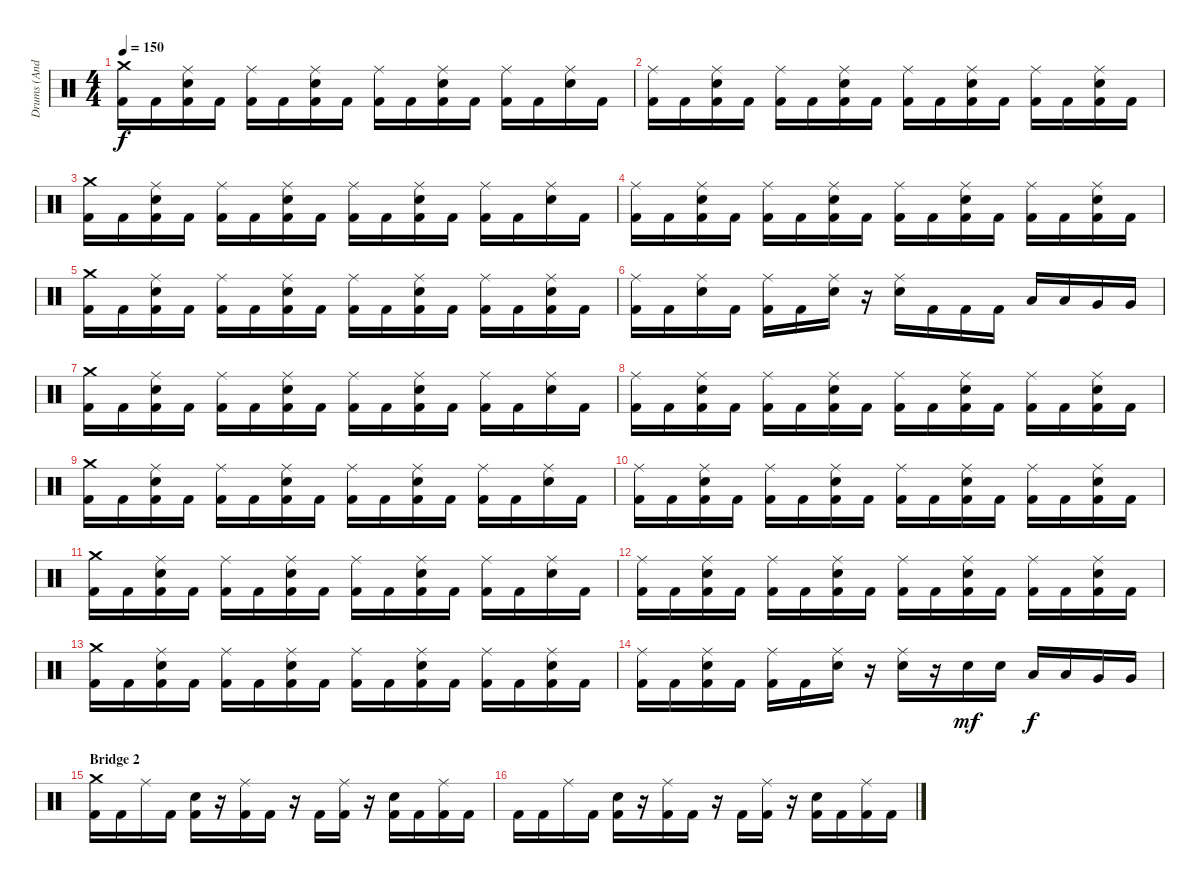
\track ("Drums (Andy C)" "Drums (And") {instrument percussion}
\staff {score}
\articulation defaults
\ts (4 4)
\tempo 150
\clef neutral
\ks c
("Crash medium (hit)" "Kick (hit) 2").16{dy f} "Kick (hit) 2".16 ("Ride (middle)" "Kick (hit) 2" "Electric Snare (hit)").16 "Kick (hit) 2".16 ("Ride (middle)" "Kick (hit) 2").16 "Kick (hit) 2".16 ("Ride (middle)" "Kick (hit) 2" "Electric Snare (hit)").16 "Kick (hit) 2".16 ("Ride (middle)" "Kick (hit) 2").16 "Kick (hit) 2".16 ("Ride (middle)" "Kick (hit) 2" "Electric Snare (hit)").16 "Kick (hit) 2".16 ("Ride (middle)" "Kick (hit) 2").16 "Kick (hit) 2".16 ("Ride (middle)" "Electric Snare (hit)").16 "Kick (hit) 2".16 |
("Ride (middle)" "Kick (hit) 2").16 "Kick (hit) 2".16 ("Ride (middle)" "Kick (hit) 2" "Electric Snare (hit)").16 "Kick (hit) 2".16 ("Ride (middle)" "Kick (hit) 2").16 "Kick (hit) 2".16 ("Ride (middle)" "Kick (hit) 2" "Electric Snare (hit)").16 "Kick (hit) 2".16 ("Ride (middle)" "Kick (hit) 2").16 "Kick (hit) 2".16 ("Ride (middle)" "Kick (hit) 2" "Electric Snare (hit)").16 "Kick (hit) 2".16 ("Ride (middle)" "Kick (hit) 2").16 "Kick (hit) 2".16 ("Ride (middle)" "Kick (hit) 2" "Electric Snare (hit)").16 "Kick (hit) 2".16 |
("Crash medium (hit)" "Kick (hit) 2").16 "Kick (hit) 2".16 ("Ride (middle)" "Kick (hit) 2" "Electric Snare (hit)").16 "Kick (hit) 2".16 ("Ride (middle)" "Kick (hit) 2").16 "Kick (hit) 2".16 ("Ride (middle)" "Kick (hit) 2" "Electric Snare (hit)").16 "Kick (hit) 2".16 ("Ride (middle)" "Kick (hit) 2").16 "Kick (hit) 2".16 ("Ride (middle)" "Kick (hit) 2" "Electric Snare (hit)").16 "Kick (hit) 2".16 ("Ride (middle)" "Kick (hit) 2").16 "Kick (hit) 2".16 ("Ride (middle)" "Electric Snare (hit)").16 "Kick (hit) 2".16 |
("Ride (middle)" "Kick (hit) 2").16 "Kick (hit) 2".16 ("Ride (middle)" "Kick (hit) 2" "Electric Snare (hit)").16 "Kick (hit) 2".16 ("Ride (middle)" "Kick (hit) 2").16 "Kick (hit) 2".16 ("Ride (middle)" "Kick (hit) 2" "Electric Snare (hit)").16 "Kick (hit) 2".16 ("Ride (middle)" "Kick (hit) 2").16 "Kick (hit) 2".16 ("Ride (middle)" "Kick (hit) 2" "Electric Snare (hit)").16 "Kick (hit) 2".16 ("Ride (middle)" "Kick (hit) 2").16 "Kick (hit) 2".16 ("Ride (middle)" "Kick (hit) 2" "Electric Snare (hit)").16 "Kick (hit) 2".16 |
("Crash medium (hit)" "Kick (hit) 2").16 "Kick (hit) 2".16 ("Ride (middle)" "Kick (hit) 2" "Electric Snare (hit)").16 "Kick (hit) 2".16 ("Ride (middle)" "Kick (hit) 2").16 "Kick (hit) 2".16 ("Ride (middle)" "Kick (hit) 2" "Electric Snare (hit)").16 "Kick (hit) 2".16 ("Ride (middle)" "Kick (hit) 2").16 "Kick (hit) 2".16 ("Ride (middle)" "Kick (hit) 2" "Electric Snare (hit)").16 "Kick (hit) 2".16 ("Ride (middle)" "Kick (hit) 2").16 "Kick (hit) 2".16 ("Ride (middle)" "Kick (hit) 2" "Electric Snare (hit)").16 "Kick (hit) 2".16 |
("Ride (middle)" "Kick (hit) 2").16 "Kick (hit) 2".16 ("Ride (middle)" "Electric Snare (hit)").16 "Kick (hit) 2".16 ("Ride (middle)" "Kick (hit) 2").16 "Kick (hit) 2".16 ("Ride (middle)" "Electric Snare (hit)").16 r.16 ("Ride (middle)" "Electric Snare (hit)").16 "Kick (hit) 2".16 "Kick (hit) 2".16 "Kick (hit) 2".16 "Low Tom (hit)".16 "Low Tom (hit)".16 "Very Low Tom (hit)".16 "Very Low Tom (hit)".16 |
("Crash medium (hit)" "Kick (hit) 2").16 "Kick (hit) 2".16 ("Ride (middle)" "Kick (hit) 2" "Electric Snare (hit)").16 "Kick (hit) 2".16 ("Ride (middle)" "Kick (hit) 2").16 "Kick (hit) 2".16 ("Ride (middle)" "Kick (hit) 2" "Electric Snare (hit)").16 "Kick (hit) 2".16 ("Ride (middle)" "Kick (hit) 2").16 "Kick (hit) 2".16 ("Ride (middle)" "Kick (hit) 2" "Electric Snare (hit)").16 "Kick (hit) 2".16 ("Ride (middle)" "Kick (hit) 2").16 "Kick (hit) 2".16 ("Ride (middle)" "Electric Snare (hit)").16 "Kick (hit) 2".16 |
("Ride (middle)" "Kick (hit) 2").16 "Kick (hit) 2".16 ("Ride (middle)" "Kick (hit) 2" "Electric Snare (hit)").16 "Kick (hit) 2".16 ("Ride (middle)" "Kick (hit) 2").16 "Kick (hit) 2".16 ("Ride (middle)" "Kick (hit) 2" "Electric Snare (hit)").16 "Kick (hit) 2".16 ("Ride (middle)" "Kick (hit) 2").16 "Kick (hit) 2".16 ("Ride (middle)" "Kick (hit) 2" "Electric Snare (hit)").16 "Kick (hit) 2".16 ("Ride (middle)" "Kick (hit) 2").16 "Kick (hit) 2".16 ("Ride (middle)" "Kick (hit) 2" "Electric Snare (hit)").16 "Kick (hit) 2".16 |
("Crash medium (hit)" "Kick (hit) 2").16 "Kick (hit) 2".16 ("Ride (middle)" "Kick (hit) 2" "Electric Snare (hit)").16 "Kick (hit) 2".16 ("Ride (middle)" "Kick (hit) 2").16 "Kick (hit) 2".16 ("Ride (middle)" "Kick (hit) 2" "Electric Snare (hit)").16 "Kick (hit) 2".16 ("Ride (middle)" "Kick (hit) 2").16 "Kick (hit) 2".16 ("Ride (middle)" "Kick (hit) 2" "Electric Snare (hit)").16 "Kick (hit) 2".16 ("Ride (middle)" "Kick (hit) 2").16 "Kick (hit) 2".16 ("Ride (middle)" "Electric Snare (hit)").16 "Kick (hit) 2".16 |
("Ride (middle)" "Kick (hit) 2").16 "Kick (hit) 2".16 ("Ride (middle)" "Kick (hit) 2" "Electric Snare (hit)").16 "Kick (hit) 2".16 ("Ride (middle)" "Kick (hit) 2").16 "Kick (hit) 2".16 ("Ride (middle)" "Kick (hit) 2" "Electric Snare (hit)").16 "Kick (hit) 2".16 ("Ride (middle)" "Kick (hit) 2").16 "Kick (hit) 2".16 ("Ride (middle)" "Kick (hit) 2" "Electric Snare (hit)").16 "Kick (hit) 2".16 ("Ride (middle)" "Kick (hit) 2").16 "Kick (hit) 2".16 ("Ride (middle)" "Kick (hit) 2" "Electric Snare (hit)").16 "Kick (hit) 2".16 |
("Crash medium (hit)" "Kick (hit) 2").16 "Kick (hit) 2".16 ("Ride (middle)" "Kick (hit) 2" "Electric Snare (hit)").16 "Kick (hit) 2".16 ("Ride (middle)" "Kick (hit) 2").16 "Kick (hit) 2".16 ("Ride (middle)" "Kick (hit) 2" "Electric Snare (hit)").16 "Kick (hit) 2".16 ("Ride (middle)" "Kick (hit) 2").16 "Kick (hit) 2".16 ("Ride (middle)" "Kick (hit) 2" "Electric Snare (hit)").16 "Kick (hit) 2".16 ("Ride (middle)" "Kick (hit) 2").16 "Kick (hit) 2".16 ("Ride (middle)" "Electric Snare (hit)").16 "Kick (hit) 2".16 |
("Ride (middle)" "Kick (hit) 2").16 "Kick (hit) 2".16 ("Ride (middle)" "Kick (hit) 2" "Electric Snare (hit)").16 "Kick (hit) 2".16 ("Ride (middle)" "Kick (hit) 2").16 "Kick (hit) 2".16 ("Ride (middle)" "Kick (hit) 2" "Electric Snare (hit)").16 "Kick (hit) 2".16 ("Ride (middle)" "Kick (hit) 2").16 "Kick (hit) 2".16 ("Ride (middle)" "Kick (hit) 2" "Electric Snare (hit)").16 "Kick (hit) 2".16 ("Ride (middle)" "Kick (hit) 2").16 "Kick (hit) 2".16 ("Ride (middle)" "Kick (hit) 2" "Electric Snare (hit)").16 "Kick (hit) 2".16 |
("Crash medium (hit)" "Kick (hit) 2").16 "Kick (hit) 2".16 ("Ride (middle)" "Kick (hit) 2" "Electric Snare (hit)").16 "Kick (hit) 2".16 ("Ride (middle)" "Kick (hit) 2").16 "Kick (hit) 2".16 ("Ride (middle)" "Kick (hit) 2" "Electric Snare (hit)").16 "Kick (hit) 2".16 ("Ride (middle)" "Kick (hit) 2").16 "Kick (hit) 2".16 ("Ride (middle)" "Kick (hit) 2" "Electric Snare (hit)").16 "Kick (hit) 2".16 ("Ride (middle)" "Kick (hit) 2").16 "Kick (hit) 2".16 ("Ride (middle)" "Kick (hit) 2" "Electric Snare (hit)").16 "Kick (hit) 2".16 |
("Ride (middle)" "Kick (hit) 2").16 "Kick (hit) 2".16 ("Ride (middle)" "Kick (hit) 2" "Electric Snare (hit)").16 "Kick (hit) 2".16 ("Ride (middle)" "Kick (hit) 2").16 "Kick (hit) 2".16 ("Ride (middle)" "Electric Snare (hit)").16 r.16 ("Ride (middle)" "Electric Snare (hit)").16 r.16 "Electric Snare (hit)".16{dy mf} "Electric Snare (hit)".16 "Low Tom (hit)".16{dy f} "Low Tom (hit)".16 "Very Low Tom (hit)".16 "Very Low Tom (hit)".16 |
\section ("" "Bridge 2")
("Crash medium (hit)" "Kick (hit) 2").16 "Kick (hit) 2".16 "Ride (middle)".16 "Kick (hit) 2".16 ("Kick (hit) 2" "Electric Snare (hit)").16 r.16 ("Ride (middle)" "Kick (hit) 2").16 "Kick (hit) 2".16 r.16 "Kick (hit) 2".16 ("Ride (middle)" "Kick (hit) 2").16 r.16 ("Kick (hit) 2" "Electric Snare (hit)").16 "Kick (hit) 2".16 ("Ride (middle)" "Kick (hit) 2").16 "Kick (hit) 2".16 |
"Kick (hit) 2".16 "Kick (hit) 2".16 "Ride (middle)".16 "Kick (hit) 2".16 ("Kick (hit) 2" "Electric Snare (hit)").16 r.16 ("Ride (middle)" "Kick (hit) 2").16 "Kick (hit) 2".16 r.16 "Kick (hit) 2".16 ("Ride (middle)" "Kick (hit) 2").16 r.16 ("Kick (hit) 2" "Electric Snare (hit)").16 "Kick (hit) 2".16 ("Ride (middle)" "Kick (hit) 2").16 "Kick (hit) 2".16
